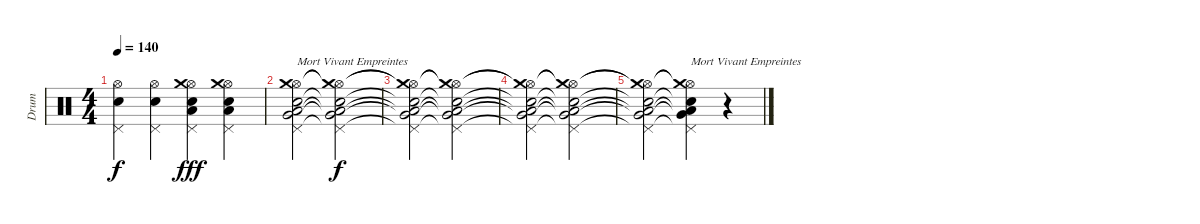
\track ("Drum" "Drum") {instrument percussion}
\staff {score}
\articulation defaults
\ts (4 4)
\tempo 140
\clef neutral
\ks c
("Hi-Hat (open)" "Snare (hit) 2" "Pedal Hi-Hat (hit)").4{dy f} ("Hi-Hat (open)" "Snare (hit) 2" "Pedal Hi-Hat (hit)").4 ("Hi-Hat (open)" "Low Tom (hit)" "Snare (hit) 2" "Crash medium (hit)" "Pedal Hi-Hat (hit)").4{dy fff} ("Hi-Hat (open)" "Low Tom (hit)" "Snare (hit) 2" "Crash medium (hit)" "Pedal Hi-Hat (hit)").4 |
("Hi-Hat (open)" "Very Low Tom (hit)" "Low Tom (hit)" "Snare (hit) 2" "Crash medium (hit)" "Pedal Hi-Hat (hit)").2{txt "Mort Vivant Empreintes"} ("Hi-Hat (open)"{t} "Very Low Tom (hit)"{t} "Low Tom (hit)"{t} "Snare (hit) 2"{t} "Crash medium (hit)"{t} "Pedal Hi-Hat (hit)"{t}).2{dy f} |
("Hi-Hat (open)"{t} "Very Low Tom (hit)"{t} "Low Tom (hit)"{t} "Snare (hit) 2"{t} "Crash medium (hit)"{t} "Pedal Hi-Hat (hit)"{t}).2 ("Hi-Hat (open)"{t} "Very Low Tom (hit)"{t} "Low Tom (hit)"{t} "Snare (hit) 2"{t} "Crash medium (hit)"{t} "Pedal Hi-Hat (hit)"{t}).2 |
("Hi-Hat (open)"{t} "Very Low Tom (hit)"{t} "Low Tom (hit)"{t} "Snare (hit) 2"{t} "Crash medium (hit)"{t} "Pedal Hi-Hat (hit)"{t}).2 ("Hi-Hat (open)"{t} "Very Low Tom (hit)"{t} "Low Tom (hit)"{t} "Snare (hit) 2"{t} "Crash medium (hit)"{t} "Pedal Hi-Hat (hit)"{t}).2 |
("Hi-Hat (open)"{t} "Very Low Tom (hit)"{t} "Low Tom (hit)"{t} "Snare (hit) 2"{t} "Crash medium (hit)"{t} "Pedal Hi-Hat (hit)"{t}).2 ("Hi-Hat (open)"{t} "Very Low Tom (hit)"{t} "Low Tom (hit)"{t} "Snare (hit) 2"{t} "Crash medium (hit)"{t} "Pedal Hi-Hat (hit)"{t}).4{txt "Mort Vivant Empreintes"} r.4
